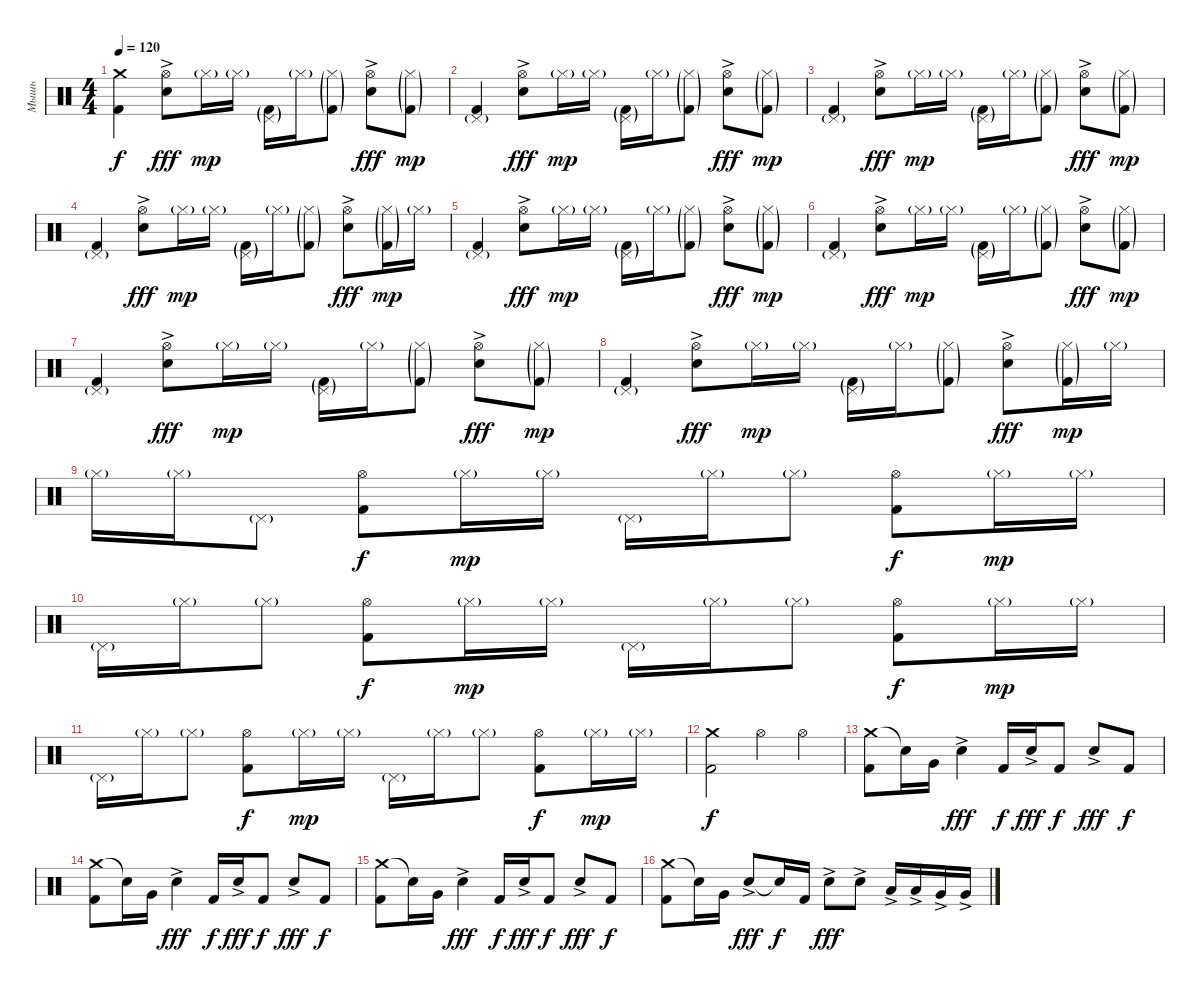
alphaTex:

\track ("Мышь" "Мышь") {instrument percussion}
\staff {score}
\articulation defaults
\ts (4 4)
\tempo 120
\clef neutral
\ks c
("Crash medium (hit)" "Kick (hit) 2").4{dy f} ("Hi-Hat (open)" "Electric Snare (hit)"{ac}).8{dy fff} "Hi-Hat (closed)"{g}.16{dy mp} "Hi-Hat (closed)"{g}.16 ("Pedal Hi-Hat (hit)"{g} "Kick (hit) 2"{g}).16 "Hi-Hat (closed)"{g}.16 ("Hi-Hat (closed)"{g} "Kick (hit) 2"{g}).8 ("Hi-Hat (open)" "Electric Snare (hit)"{ac}).8{dy fff} ("Hi-Hat (closed)"{g} "Kick (hit) 2"{g}).8{dy mp} |
("Pedal Hi-Hat (hit)"{g} "Kick (hit) 2").4 ("Hi-Hat (open)" "Electric Snare (hit)"{ac}).8{dy fff} "Hi-Hat (closed)"{g}.16{dy mp} "Hi-Hat (closed)"{g}.16 ("Pedal Hi-Hat (hit)"{g} "Kick (hit) 2"{g}).16 "Hi-Hat (closed)"{g}.16 ("Hi-Hat (closed)"{g} "Kick (hit) 2"{g}).8 ("Hi-Hat (open)" "Electric Snare (hit)"{ac}).8{dy fff} ("Hi-Hat (closed)"{g} "Kick (hit) 2"{g}).8{dy mp} |
("Pedal Hi-Hat (hit)"{g} "Kick (hit) 2").4 ("Hi-Hat (open)" "Electric Snare (hit)"{ac}).8{dy fff} "Hi-Hat (closed)"{g}.16{dy mp} "Hi-Hat (closed)"{g}.16 ("Pedal Hi-Hat (hit)"{g} "Kick (hit) 2"{g}).16 "Hi-Hat (closed)"{g}.16 ("Hi-Hat (closed)"{g} "Kick (hit) 2"{g}).8 ("Hi-Hat (open)" "Electric Snare (hit)"{ac}).8{dy fff} ("Hi-Hat (closed)"{g} "Kick (hit) 2"{g}).8{dy mp} |
("Pedal Hi-Hat (hit)"{g} "Kick (hit) 2").4 ("Hi-Hat (open)" "Electric Snare (hit)"{ac}).8{dy fff} "Hi-Hat (closed)"{g}.16{dy mp} "Hi-Hat (closed)"{g}.16 ("Pedal Hi-Hat (hit)"{g} "Kick (hit) 2"{g}).16 "Hi-Hat (closed)"{g}.16 ("Hi-Hat (closed)"{g} "Kick (hit) 2"{g}).8 ("Hi-Hat (open)" "Electric Snare (hit)"{ac}).8{dy fff} ("Hi-Hat (closed)"{g} "Kick (hit) 2"{g}).16{dy mp} "Hi-Hat (closed)"{g}.16 |
("Pedal Hi-Hat (hit)"{g} "Kick (hit) 2").4 ("Hi-Hat (open)" "Electric Snare (hit)"{ac}).8{dy fff} "Hi-Hat (closed)"{g}.16{dy mp} "Hi-Hat (closed)"{g}.16 ("Pedal Hi-Hat (hit)"{g} "Kick (hit) 2"{g}).16 "Hi-Hat (closed)"{g}.16 ("Hi-Hat (closed)"{g} "Kick (hit) 2"{g}).8 ("Hi-Hat (open)" "Electric Snare (hit)"{ac}).8{dy fff} ("Hi-Hat (closed)"{g} "Kick (hit) 2"{g}).8{dy mp} |
("Pedal Hi-Hat (hit)"{g} "Kick (hit) 2").4 ("Hi-Hat (open)" "Electric Snare (hit)"{ac}).8{dy fff} "Hi-Hat (closed)"{g}.16{dy mp} "Hi-Hat (closed)"{g}.16 ("Pedal Hi-Hat (hit)"{g} "Kick (hit) 2"{g}).16 "Hi-Hat (closed)"{g}.16 ("Hi-Hat (closed)"{g} "Kick (hit) 2"{g}).8 ("Hi-Hat (open)" "Electric Snare (hit)"{ac}).8{dy fff} ("Hi-Hat (closed)"{g} "Kick (hit) 2"{g}).8{dy mp} |
("Pedal Hi-Hat (hit)"{g} "Kick (hit) 2").4 ("Hi-Hat (open)" "Electric Snare (hit)"{ac}).8{dy fff} "Hi-Hat (closed)"{g}.16{dy mp} "Hi-Hat (closed)"{g}.16 ("Pedal Hi-Hat (hit)"{g} "Kick (hit) 2"{g}).16 "Hi-Hat (closed)"{g}.16 ("Hi-Hat (closed)"{g} "Kick (hit) 2"{g}).8 ("Hi-Hat (open)" "Electric Snare (hit)"{ac}).8{dy fff} ("Hi-Hat (closed)"{g} "Kick (hit) 2"{g}).8{dy mp} |
("Pedal Hi-Hat (hit)"{g} "Kick (hit) 2").4 ("Hi-Hat (open)" "Electric Snare (hit)"{ac}).8{dy fff} "Hi-Hat (closed)"{g}.16{dy mp} "Hi-Hat (closed)"{g}.16 ("Pedal Hi-Hat (hit)"{g} "Kick (hit) 2"{g}).16 "Hi-Hat (closed)"{g}.16 ("Hi-Hat (closed)"{g} "Kick (hit) 2"{g}).8 ("Hi-Hat (open)" "Electric Snare (hit)"{ac}).8{dy fff} ("Hi-Hat (closed)"{g} "Kick (hit) 2"{g}).16{dy mp} "Hi-Hat (closed)"{g}.16 |
"Hi-Hat (closed)"{g}.16 "Hi-Hat (closed)"{g}.16 "Pedal Hi-Hat (hit)"{g}.8 ("Hi-Hat (open)" "Kick (hit) 2").8{dy f} "Hi-Hat (closed)"{g}.16{dy mp} "Hi-Hat (closed)"{g}.16 "Pedal Hi-Hat (hit)"{g}.16 "Hi-Hat (closed)"{g}.16 "Hi-Hat (closed)"{g}.8 ("Hi-Hat (open)" "Kick (hit) 2").8{dy f} "Hi-Hat (closed)"{g}.16{dy mp} "Hi-Hat (closed)"{g}.16 |
"Pedal Hi-Hat (hit)"{g}.16 "Hi-Hat (closed)"{g}.16 "Hi-Hat (closed)"{g}.8 ("Hi-Hat (open)" "Kick (hit) 2").8{dy f} "Hi-Hat (closed)"{g}.16{dy mp} "Hi-Hat (closed)"{g}.16 "Pedal Hi-Hat (hit)"{g}.16 "Hi-Hat (closed)"{g}.16 "Hi-Hat (closed)"{g}.8 ("Hi-Hat (open)" "Kick (hit) 2").8{dy f} "Hi-Hat (closed)"{g}.16{dy mp} "Hi-Hat (closed)"{g}.16 |
"Pedal Hi-Hat (hit)"{g}.16 "Hi-Hat (closed)"{g}.16 "Hi-Hat (closed)"{g}.8 ("Hi-Hat (open)" "Kick (hit) 2").8{dy f} "Hi-Hat (closed)"{g}.16{dy mp} "Hi-Hat (closed)"{g}.16 "Pedal Hi-Hat (hit)"{g}.16 "Hi-Hat (closed)"{g}.16 "Hi-Hat (closed)"{g}.8 ("Hi-Hat (open)" "Kick (hit) 2").8{dy f} "Hi-Hat (closed)"{g}.16{dy mp} "Hi-Hat (closed)"{g}.16 |
("Crash medium (hit)" "Kick (hit) 2").2{dy f} "Hi-Hat (open)".4 "Hi-Hat (open)".4 |
("Crash medium (hit)" "Kick (hit) 2").8 "Snare (hit)"{t}.16 "Very Low Tom (hit)".16 "Electric Snare (hit)"{ac}.4{dy fff} "Kick (hit) 2".16{dy f} "Electric Snare (hit)"{ac}.16{dy fff} "Kick (hit) 2".8{dy f} "Electric Snare (hit)"{ac}.8{dy fff} "Kick (hit) 2".8{dy f} |
("Crash medium (hit)" "Kick (hit) 2").8 "Snare (hit)"{t}.16 "Very Low Tom (hit)".16 "Electric Snare (hit)"{ac}.4{dy fff} "Kick (hit) 2".16{dy f} "Electric Snare (hit)"{ac}.16{dy fff} "Kick (hit) 2".8{dy f} "Electric Snare (hit)"{ac}.8{dy fff} "Kick (hit) 2".8{dy f} |
("Crash medium (hit)" "Kick (hit) 2").8 "Snare (hit)"{t}.16 "Very Low Tom (hit)".16 "Electric Snare (hit)"{ac}.4{dy fff} "Kick (hit) 2".16{dy f} "Electric Snare (hit)"{ac}.16{dy fff} "Kick (hit) 2".8{dy f} "Electric Snare (hit)"{ac}.8{dy fff} "Kick (hit) 2".8{dy f} |
("Crash medium (hit)" "Kick (hit) 2").8 "Snare (hit)"{t}.16 "Very Low Tom (hit)".16 "Electric Snare (hit)"{ac}.8{dy fff} "Snare (hit)"{t}.16{dy f} "Kick (hit) 2".16 "Electric Snare (hit)"{ac}.8{dy fff} "Electric Snare (hit)"{ac}.8 "Low Tom (hit)"{ac}.16 "Low Tom (hit)"{ac}.16 "Very Low Tom (hit)"{ac}.16 "Very Low Tom (hit)"{ac}.16
